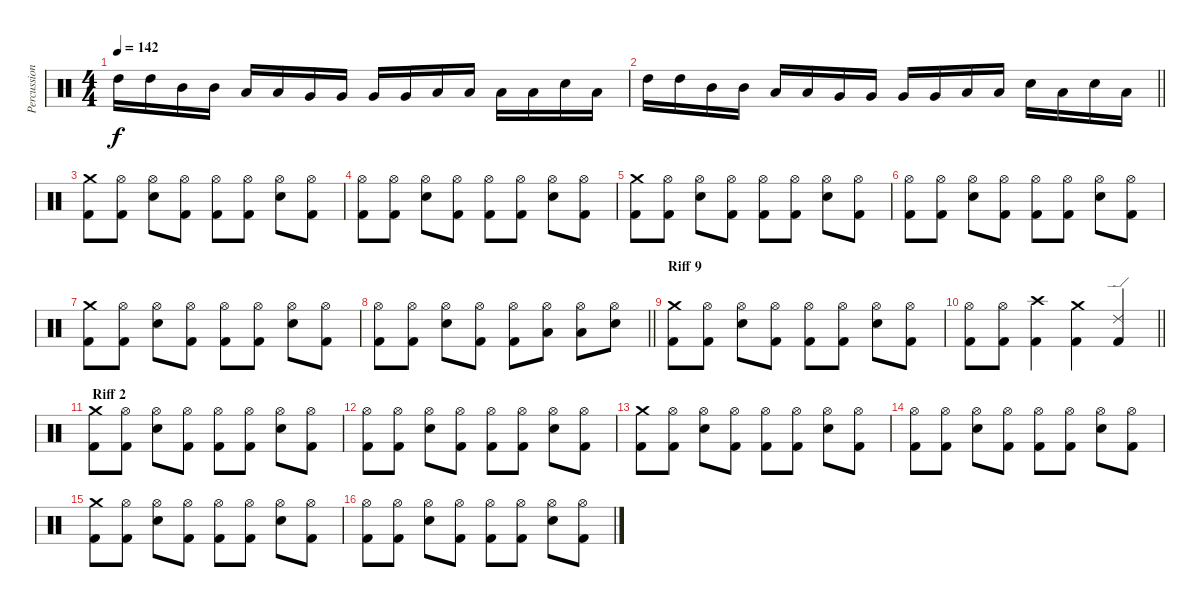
\track ("Percussions" "Percussion") {instrument percussion}
\staff {score}
\articulation defaults
\ts (4 4)
\tempo 142
\clef neutral
\ks c "High Tom (hit)".16{dy f} "High Tom (hit)".16 "Mid Tom (hit)".16 "Mid Tom (hit)".16 "Low Tom (hit)".16 "Low Tom (hit)".16 "Very Low Tom (hit)".16 "Very Low Tom (hit)".16 "Very Low Tom (hit)".16 "Very Low Tom (hit)".16 "Low Floor Tom (hit)".16 "Low Floor Tom (hit)".16 "Low Floor Tom (hit)".16 "Low Floor Tom (hit)".16 "Electric Snare (hit)".16 "Low Floor Tom (hit)".16
|
\barLineRight lightlight "High Tom (hit)".16 "High Tom (hit)".16 "Mid Tom (hit)".16 "Mid Tom (hit)".16 "Low Tom (hit)".16 "Low Tom (hit)".16 "Very Low Tom (hit)".16 "Very Low Tom (hit)".16 "Very Low Tom (hit)".16 "Very Low Tom (hit)".16 "Low Floor Tom (hit)".16 "Low Floor Tom (hit)".16 "Electric Snare (hit)".16 "Low Floor Tom (hit)".16 "Electric Snare (hit)".16 "Low Floor Tom (hit)".16
|
("Crash medium (hit)" "Kick (hit) 2").8 ("Hi-Hat (open)" "Kick (hit) 2").8 ("Hi-Hat (open)" "Electric Snare (hit)").8 ("Hi-Hat (open)" "Kick (hit) 2").8 ("Hi-Hat (open)" "Kick (hit) 2").8 ("Hi-Hat (open)" "Kick (hit) 2").8 ("Hi-Hat (open)" "Electric Snare (hit)").8 ("Hi-Hat (open)" "Kick (hit) 2").8 |
("Hi-Hat (open)" "Kick (hit) 2").8 ("Hi-Hat (open)" "Kick (hit) 2").8 ("Hi-Hat (open)" "Electric Snare (hit)").8 ("Hi-Hat (open)" "Kick (hit) 2").8 ("Hi-Hat (open)" "Kick (hit) 2").8 ("Hi-Hat (open)" "Kick (hit) 2").8 ("Hi-Hat (open)" "Electric Snare (hit)").8 ("Hi-Hat (open)" "Kick (hit) 2").8 |
("Crash medium (hit)" "Kick (hit) 2").8 ("Hi-Hat (open)" "Kick (hit) 2").8 ("Hi-Hat (open)" "Electric Snare (hit)").8 ("Hi-Hat (open)" "Kick (hit) 2").8 ("Hi-Hat (open)" "Kick (hit) 2").8 ("Hi-Hat (open)" "Kick (hit) 2").8 ("Hi-Hat (open)" "Electric Snare (hit)").8 ("Hi-Hat (open)" "Kick (hit) 2").8 |
("Hi-Hat (open)" "Kick (hit) 2").8 ("Hi-Hat (open)" "Kick (hit) 2").8 ("Hi-Hat (open)" "Electric Snare (hit)").8 ("Hi-Hat (open)" "Kick (hit) 2").8 ("Hi-Hat (open)" "Kick (hit) 2").8 ("Hi-Hat (open)" "Kick (hit) 2").8 ("Hi-Hat (open)" "Electric Snare (hit)").8 ("Hi-Hat (open)" "Kick (hit) 2").8 |
("Crash medium (hit)" "Kick (hit) 2").8 ("Hi-Hat (open)" "Kick (hit) 2").8 ("Hi-Hat (open)" "Electric Snare (hit)").8 ("Hi-Hat (open)" "Kick (hit) 2").8 ("Hi-Hat (open)" "Kick (hit) 2").8 ("Hi-Hat (open)" "Kick (hit) 2").8 ("Hi-Hat (open)" "Electric Snare (hit)").8 ("Hi-Hat (open)" "Kick (hit) 2").8 |
\barLineRight lightlight
("Hi-Hat (open)" "Kick (hit) 2").8 ("Hi-Hat (open)" "Kick (hit) 2").8 ("Hi-Hat (open)" "Electric Snare (hit)").8 ("Hi-Hat (open)" "Kick (hit) 2").8 ("Hi-Hat (open)" "Kick (hit) 2").8 ("Hi-Hat (open)" "Low Floor Tom (hit)").8 ("Hi-Hat (open)" "Low Floor Tom (hit)").8 ("Hi-Hat (open)" "Electric Snare (hit)").8 |
\section ("" "Riff 9")
("Crash medium (hit)" "Kick (hit) 2").8 ("Hi-Hat (open)" "Kick (hit) 2").8 ("Hi-Hat (open)" "Electric Snare (hit)").8 ("Hi-Hat (open)" "Kick (hit) 2").8 ("Hi-Hat (open)" "Kick (hit) 2").8 ("Hi-Hat (open)" "Kick (hit) 2").8 ("Hi-Hat (open)" "Electric Snare (hit)").8 ("Hi-Hat (open)" "Kick (hit) 2").8 |
\barLineRight lightlight
("Hi-Hat (open)" "Kick (hit) 2").8 ("Hi-Hat (open)" "Kick (hit) 2").8 ("Crash high (hit)" "Kick (hit) 2").4 ("Crash medium (hit)" "Kick (hit) 2").4 ("Ride (edge) 2" "Kick (hit) 2").4 |
\section ("" " Riff 2")
("Crash medium (hit)" "Kick (hit) 2").8 ("Hi-Hat (open)" "Kick (hit) 2").8 ("Hi-Hat (open)" "Electric Snare (hit)").8 ("Hi-Hat (open)" "Kick (hit) 2").8 ("Hi-Hat (open)" "Kick (hit) 2").8 ("Hi-Hat (open)" "Kick (hit) 2").8 ("Hi-Hat (open)" "Electric Snare (hit)").8 ("Hi-Hat (open)" "Kick (hit) 2").8 |
("Hi-Hat (open)" "Kick (hit) 2").8 ("Hi-Hat (open)" "Kick (hit) 2").8 ("Hi-Hat (open)" "Electric Snare (hit)").8 ("Hi-Hat (open)" "Kick (hit) 2").8 ("Hi-Hat (open)" "Kick (hit) 2").8 ("Hi-Hat (open)" "Kick (hit) 2").8 ("Hi-Hat (open)" "Electric Snare (hit)").8 ("Hi-Hat (open)" "Kick (hit) 2").8 |
("Crash medium (hit)" "Kick (hit) 2").8 ("Hi-Hat (open)" "Kick (hit) 2").8 ("Hi-Hat (open)" "Electric Snare (hit)").8 ("Hi-Hat (open)" "Kick (hit) 2").8 ("Hi-Hat (open)" "Kick (hit) 2").8 ("Hi-Hat (open)" "Kick (hit) 2").8 ("Hi-Hat (open)" "Electric Snare (hit)").8 ("Hi-Hat (open)" "Kick (hit) 2").8 |
("Hi-Hat (open)" "Kick (hit) 2").8 ("Hi-Hat (open)" "Kick (hit) 2").8 ("Hi-Hat (open)" "Electric Snare (hit)").8 ("Hi-Hat (open)" "Kick (hit) 2").8 ("Hi-Hat (open)" "Kick (hit) 2").8 ("Hi-Hat (open)" "Kick (hit) 2").8 ("Hi-Hat (open)" "Electric Snare (hit)").8 ("Hi-Hat (open)" "Kick (hit) 2").8 |
("Crash medium (hit)" "Kick (hit) 2").8 ("Hi-Hat (open)" "Kick (hit) 2").8 ("Hi-Hat (open)" "Electric Snare (hit)").8 ("Hi-Hat (open)" "Kick (hit) 2").8 ("Hi-Hat (open)" "Kick (hit) 2").8 ("Hi-Hat (open)" "Kick (hit) 2").8 ("Hi-Hat (open)" "Electric Snare (hit)").8 ("Hi-Hat (open)" "Kick (hit) 2").8 |
("Hi-Hat (open)" "Kick (hit) 2").8 ("Hi-Hat (open)" "Kick (hit) 2").8 ("Hi-Hat (open)" "Electric Snare (hit)").8 ("Hi-Hat (open)" "Kick (hit) 2").8 ("Hi-Hat (open)" "Kick (hit) 2").8 ("Hi-Hat (open)" "Kick (hit) 2").8 ("Hi-Hat (open)" "Electric Snare (hit)").8 ("Hi-Hat (open)" "Kick (hit) 2").8
